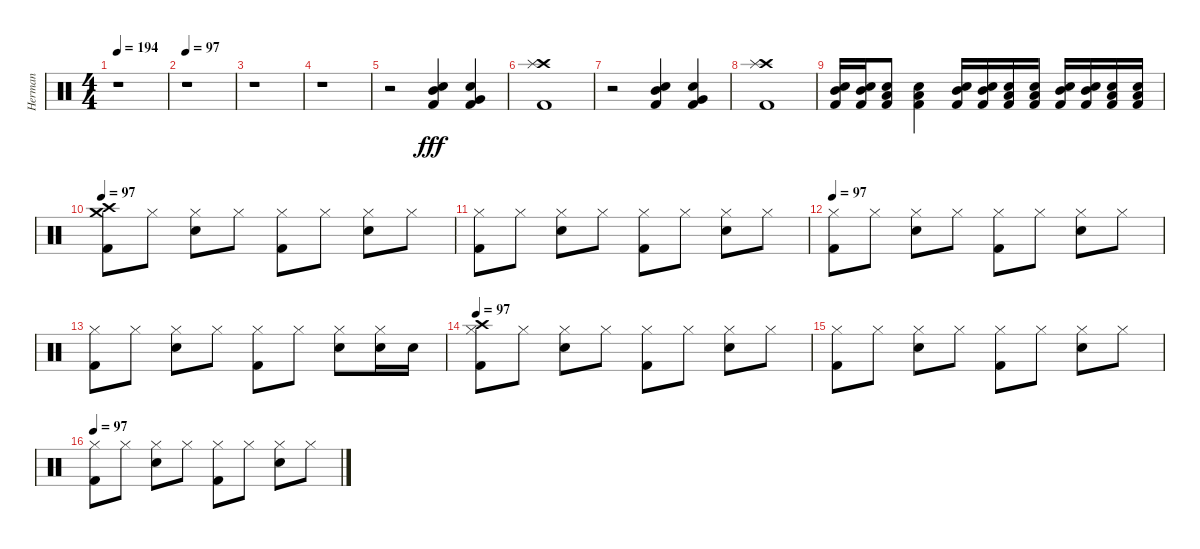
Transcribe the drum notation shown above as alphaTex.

\track ("Herman" "Herman") {instrument percussion}
\staff {score}
\articulation defaults
\ts (4 4)
\tempo 194
\clef neutral
\ks c
r.1{dy fff} |
\tempo 97
r.1 |
r.1 |
r.1 |
r.2 ("Snare (hit) 2" "Mid Tom (hit)" "Kick (hit) 2").4 ("Snare (hit) 2" "Very Low Tom (hit)" "Kick (hit) 2").4 |
("Crash high (hit)" "Splash (hit)" "Kick (hit) 2").1 |
r.2 ("Snare (hit) 2" "Mid Tom (hit)" "Kick (hit) 2").4 ("Snare (hit) 2" "Very Low Tom (hit)" "Kick (hit) 2").4 |
("Crash high (hit)" "Splash (hit)" "Kick (hit) 2").1 |
("Snare (hit) 2" "Mid Tom (hit)" "Kick (hit) 2").16 ("Snare (hit) 2" "Mid Tom (hit)" "Kick (hit) 2").16 ("Snare (hit) 2" "Low Tom (hit)" "Kick (hit) 2").8 ("Snare (hit) 2" "Low Floor Tom (hit)" "Kick (hit) 2").4 ("Snare (hit) 2" "Mid Tom (hit)" "Kick (hit) 2").16 ("Snare (hit) 2" "Mid Tom (hit)" "Kick (hit) 2").16 ("Snare (hit) 2" "Low Tom (hit)" "Kick (hit) 2").16 ("Snare (hit) 2" "Low Floor Tom (hit)" "Kick (hit) 2").16 ("Snare (hit) 2" "Mid Tom (hit)" "Kick (hit) 2").16 ("Snare (hit) 2" "Mid Tom (hit)" "Kick (hit) 2").16 ("Snare (hit) 2" "Low Tom (hit)" "Kick (hit) 2").16 ("Snare (hit) 2" "Low Floor Tom (hit)" "Kick (hit) 2").16 |
\tempo 97
("Crash high (hit)" "Crash medium (hit)" "Kick (hit) 2").8 "Hi-Hat (closed)".8 ("Hi-Hat (closed)" "Snare (hit) 2").8 "Hi-Hat (closed)".8 ("Hi-Hat (closed)" "Kick (hit) 2").8 "Hi-Hat (closed)".8 ("Hi-Hat (closed)" "Snare (hit) 2").8 "Hi-Hat (closed)".8 |
("Hi-Hat (closed)" "Kick (hit) 2").8 "Hi-Hat (closed)".8 ("Hi-Hat (closed)" "Snare (hit) 2").8 "Hi-Hat (closed)".8 ("Hi-Hat (closed)" "Kick (hit) 2").8 "Hi-Hat (closed)".8 ("Hi-Hat (closed)" "Snare (hit) 2").8 "Hi-Hat (closed)".8 |
\tempo 97
("Hi-Hat (closed)" "Kick (hit) 2").8 "Hi-Hat (closed)".8 ("Hi-Hat (closed)" "Snare (hit) 2").8 "Hi-Hat (closed)".8 ("Hi-Hat (closed)" "Kick (hit) 2").8 "Hi-Hat (closed)".8 ("Hi-Hat (closed)" "Snare (hit) 2").8 "Hi-Hat (closed)".8 |
("Hi-Hat (closed)" "Kick (hit) 2").8 "Hi-Hat (closed)".8 ("Hi-Hat (closed)" "Snare (hit) 2").8 "Hi-Hat (closed)".8 ("Hi-Hat (closed)" "Kick (hit) 2").8 "Hi-Hat (closed)".8 ("Hi-Hat (closed)" "Snare (hit) 2").8 ("Hi-Hat (closed)" "Snare (hit) 2").16 "Snare (hit) 2".16 |
\tempo 97
("Crash high (hit)" "Hi-Hat (closed)" "Kick (hit) 2").8 "Hi-Hat (closed)".8 ("Hi-Hat (closed)" "Snare (hit) 2").8 "Hi-Hat (closed)".8 ("Hi-Hat (closed)" "Kick (hit) 2").8 "Hi-Hat (closed)".8 ("Hi-Hat (closed)" "Snare (hit) 2").8 "Hi-Hat (closed)".8 |
("Hi-Hat (closed)" "Kick (hit) 2").8 "Hi-Hat (closed)".8 ("Hi-Hat (closed)" "Snare (hit) 2").8 "Hi-Hat (closed)".8 ("Hi-Hat (closed)" "Kick (hit) 2").8 "Hi-Hat (closed)".8 ("Hi-Hat (closed)" "Snare (hit) 2").8 "Hi-Hat (closed)".8 |
\tempo 97
("Hi-Hat (closed)" "Kick (hit) 2").8 "Hi-Hat (closed)".8 ("Hi-Hat (closed)" "Snare (hit) 2").8 "Hi-Hat (closed)".8 ("Hi-Hat (closed)" "Kick (hit) 2").8 "Hi-Hat (closed)".8 ("Hi-Hat (closed)" "Snare (hit) 2").8 "Hi-Hat (closed)".8
